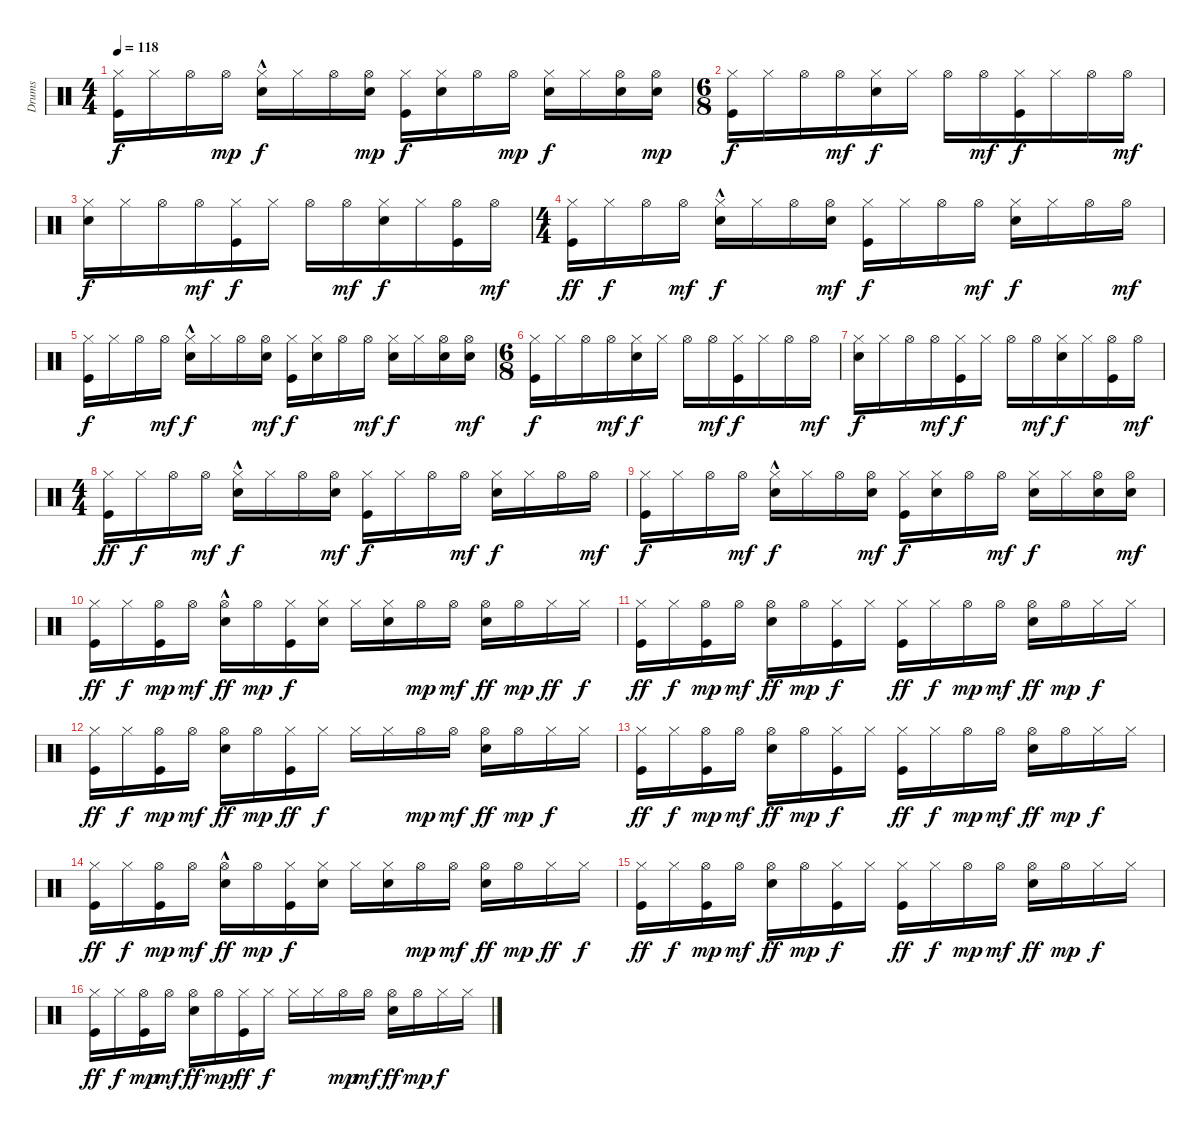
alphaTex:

\track ("Drums" "Drums") {instrument percussion}
\staff {score}
\articulation defaults
\ts (4 4)
\tempo 118
\clef neutral
\ks c
("Hi-Hat (closed)" "Kick (hit)").16{dy f} "Hi-Hat (closed)".16 "Hi-Hat (open)".16 "Hi-Hat (open)".16{dy mp} ("Hi-Hat (closed)" "Electric Snare (hit)"{hac}).16{dy f} "Hi-Hat (closed)".16 "Hi-Hat (open)".16 ("Electric Snare (hit)" "Hi-Hat (open)").16{dy mp} ("Kick (hit)" "Hi-Hat (closed)").16{dy f} ("Electric Snare (hit)" "Hi-Hat (closed)").16 "Hi-Hat (open)".16 "Hi-Hat (open)".16{dy mp} ("Hi-Hat (closed)" "Electric Snare (hit)").16{dy f} "Hi-Hat (closed)".16 ("Electric Snare (hit)" "Hi-Hat (open)").16 ("Electric Snare (hit)" "Hi-Hat (open)").16{dy mp} |
\ts (6 8)
("Hi-Hat (closed)" "Kick (hit)").16{dy f} "Hi-Hat (closed)".16 "Hi-Hat (open)".16 "Hi-Hat (open)".16{dy mf} ("Electric Snare (hit)" "Hi-Hat (closed)").16{dy f} "Hi-Hat (closed)".16 "Hi-Hat (open)".16 "Hi-Hat (open)".16{dy mf} ("Kick (hit)" "Hi-Hat (closed)").16{dy f} "Hi-Hat (closed)".16 "Hi-Hat (open)".16 "Hi-Hat (open)".16{dy mf} |
("Electric Snare (hit)" "Hi-Hat (closed)").16{dy f} "Hi-Hat (closed)".16 "Hi-Hat (open)".16 "Hi-Hat (open)".16{dy mf} ("Kick (hit)" "Hi-Hat (closed)").16{dy f} "Hi-Hat (closed)".16 "Hi-Hat (open)".16 "Hi-Hat (open)".16{dy mf} ("Electric Snare (hit)" "Hi-Hat (closed)").16{dy f} "Hi-Hat (closed)".16 ("Kick (hit)" "Hi-Hat (open)").16 "Hi-Hat (open)".16{dy mf} |
\ts (4 4)
("Kick (hit)" "Hi-Hat (closed)").16{dy ff} "Hi-Hat (closed)".16{dy f} "Hi-Hat (open)".16 "Hi-Hat (open)".16{dy mf} ("Electric Snare (hit)"{hac} "Hi-Hat (closed)").16{dy f} "Hi-Hat (closed)".16 "Hi-Hat (open)".16 ("Hi-Hat (open)" "Electric Snare (hit)").16{dy mf} ("Hi-Hat (closed)" "Kick (hit)").16{dy f} "Hi-Hat (closed)".16 "Hi-Hat (open)".16 "Hi-Hat (open)".16{dy mf} ("Electric Snare (hit)" "Hi-Hat (closed)").16{dy f} "Hi-Hat (closed)".16 "Hi-Hat (open)".16 "Hi-Hat (open)".16{dy mf} |
("Kick (hit)" "Hi-Hat (closed)").16{dy f} "Hi-Hat (closed)".16 "Hi-Hat (open)".16 "Hi-Hat (open)".16{dy mf} ("Electric Snare (hit)"{hac} "Hi-Hat (closed)").16{dy f} "Hi-Hat (closed)".16 "Hi-Hat (open)".16 ("Hi-Hat (open)" "Electric Snare (hit)").16{dy mf} ("Hi-Hat (closed)" "Kick (hit)").16{dy f} ("Electric Snare (hit)" "Hi-Hat (closed)").16 "Hi-Hat (open)".16 "Hi-Hat (open)".16{dy mf} ("Electric Snare (hit)" "Hi-Hat (closed)").16{dy f} "Hi-Hat (closed)".16 ("Electric Snare (hit)" "Hi-Hat (open)").16 ("Electric Snare (hit)" "Hi-Hat (open)").16{dy mf} |
\ts (6 8)
("Hi-Hat (closed)" "Kick (hit)").16{dy f} "Hi-Hat (closed)".16 "Hi-Hat (open)".16 "Hi-Hat (open)".16{dy mf} ("Electric Snare (hit)" "Hi-Hat (closed)").16{dy f} "Hi-Hat (closed)".16 "Hi-Hat (open)".16 "Hi-Hat (open)".16{dy mf} ("Kick (hit)" "Hi-Hat (closed)").16{dy f} "Hi-Hat (closed)".16 "Hi-Hat (open)".16 "Hi-Hat (open)".16{dy mf} |
("Electric Snare (hit)" "Hi-Hat (closed)").16{dy f} "Hi-Hat (closed)".16 "Hi-Hat (open)".16 "Hi-Hat (open)".16{dy mf} ("Kick (hit)" "Hi-Hat (closed)").16{dy f} "Hi-Hat (closed)".16 "Hi-Hat (open)".16 "Hi-Hat (open)".16{dy mf} ("Electric Snare (hit)" "Hi-Hat (closed)").16{dy f} "Hi-Hat (closed)".16 ("Kick (hit)" "Hi-Hat (open)").16 "Hi-Hat (open)".16{dy mf} |
\ts (4 4)
("Kick (hit)" "Hi-Hat (closed)").16{dy ff} "Hi-Hat (closed)".16{dy f} "Hi-Hat (open)".16 "Hi-Hat (open)".16{dy mf} ("Electric Snare (hit)"{hac} "Hi-Hat (closed)").16{dy f} "Hi-Hat (closed)".16 "Hi-Hat (open)".16 ("Hi-Hat (open)" "Electric Snare (hit)").16{dy mf} ("Hi-Hat (closed)" "Kick (hit)").16{dy f} "Hi-Hat (closed)".16 "Hi-Hat (open)".16 "Hi-Hat (open)".16{dy mf} ("Electric Snare (hit)" "Hi-Hat (closed)").16{dy f} "Hi-Hat (closed)".16 "Hi-Hat (open)".16 "Hi-Hat (open)".16{dy mf} |
("Kick (hit)" "Hi-Hat (closed)").16{dy f} "Hi-Hat (closed)".16 "Hi-Hat (open)".16 "Hi-Hat (open)".16{dy mf} ("Electric Snare (hit)"{hac} "Hi-Hat (closed)").16{dy f} "Hi-Hat (closed)".16 "Hi-Hat (open)".16 ("Hi-Hat (open)" "Electric Snare (hit)").16{dy mf} ("Hi-Hat (closed)" "Kick (hit)").16{dy f} ("Electric Snare (hit)" "Hi-Hat (closed)").16 "Hi-Hat (open)".16 "Hi-Hat (open)".16{dy mf} ("Electric Snare (hit)" "Hi-Hat (closed)").16{dy f} "Hi-Hat (closed)".16 ("Electric Snare (hit)" "Hi-Hat (open)").16 ("Electric Snare (hit)" "Hi-Hat (open)").16{dy mf} |
("Kick (hit)" "Hi-Hat (closed)").16{dy ff} "Hi-Hat (closed)".16{dy f} ("Kick (hit)" "Hi-Hat (open)").16{dy mp} "Hi-Hat (open)".16{dy mf} ("Electric Snare (hit)"{hac} "Hi-Hat (open)").16{dy ff} "Hi-Hat (open)".16{dy mp} ("Kick (hit)" "Hi-Hat (closed)").16{dy f} ("Electric Snare (hit)" "Hi-Hat (closed)").16 "Hi-Hat (closed)".16 ("Electric Snare (hit)" "Hi-Hat (closed)").16 "Hi-Hat (open)".16{dy mp} "Hi-Hat (open)".16{dy mf} ("Hi-Hat (open)" "Electric Snare (hit)").16{dy ff} "Hi-Hat (open)".16{dy mp} "Hi-Hat (closed)".16{dy ff} "Hi-Hat (closed)".16{dy f} |
("Kick (hit)" "Hi-Hat (closed)").16{dy ff} "Hi-Hat (closed)".16{dy f} ("Kick (hit)" "Hi-Hat (open)").16{dy mp} "Hi-Hat (open)".16{dy mf} ("Electric Snare (hit)" "Hi-Hat (open)").16{dy ff} "Hi-Hat (open)".16{dy mp} ("Kick (hit)" "Hi-Hat (closed)").16{dy f} "Hi-Hat (closed)".16 ("Kick (hit)" "Hi-Hat (closed)").16{dy ff} "Hi-Hat (closed)".16{dy f} "Hi-Hat (open)".16{dy mp} "Hi-Hat (open)".16{dy mf} ("Electric Snare (hit)" "Hi-Hat (open)").16{dy ff} "Hi-Hat (open)".16{dy mp} "Hi-Hat (closed)".16{dy f} "Hi-Hat (closed)".16 |
("Kick (hit)" "Hi-Hat (closed)").16{dy ff} "Hi-Hat (closed)".16{dy f} ("Kick (hit)" "Hi-Hat (open)").16{dy mp} "Hi-Hat (open)".16{dy mf} ("Electric Snare (hit)" "Hi-Hat (open)").16{dy ff} "Hi-Hat (open)".16{dy mp} ("Kick (hit)" "Hi-Hat (closed)").16{dy ff} "Hi-Hat (closed)".16{dy f} "Hi-Hat (closed)".16 "Hi-Hat (closed)".16 "Hi-Hat (open)".16{dy mp} "Hi-Hat (open)".16{dy mf} ("Electric Snare (hit)" "Hi-Hat (open)").16{dy ff} "Hi-Hat (open)".16{dy mp} "Hi-Hat (closed)".16{dy f} "Hi-Hat (closed)".16 |
("Kick (hit)" "Hi-Hat (closed)").16{dy ff} "Hi-Hat (closed)".16{dy f} ("Kick (hit)" "Hi-Hat (open)").16{dy mp} "Hi-Hat (open)".16{dy mf} ("Electric Snare (hit)" "Hi-Hat (open)").16{dy ff} "Hi-Hat (open)".16{dy mp} ("Kick (hit)" "Hi-Hat (closed)").16{dy f} "Hi-Hat (closed)".16 ("Kick (hit)" "Hi-Hat (closed)").16{dy ff} "Hi-Hat (closed)".16{dy f} "Hi-Hat (open)".16{dy mp} "Hi-Hat (open)".16{dy mf} ("Electric Snare (hit)" "Hi-Hat (open)").16{dy ff} "Hi-Hat (open)".16{dy mp} "Hi-Hat (closed)".16{dy f} "Hi-Hat (closed)".16 |
("Kick (hit)" "Hi-Hat (closed)").16{dy ff} "Hi-Hat (closed)".16{dy f} ("Kick (hit)" "Hi-Hat (open)").16{dy mp} "Hi-Hat (open)".16{dy mf} ("Electric Snare (hit)"{hac} "Hi-Hat (open)").16{dy ff} "Hi-Hat (open)".16{dy mp} ("Kick (hit)" "Hi-Hat (closed)").16{dy f} ("Electric Snare (hit)" "Hi-Hat (closed)").16 "Hi-Hat (closed)".16 ("Electric Snare (hit)" "Hi-Hat (closed)").16 "Hi-Hat (open)".16{dy mp} "Hi-Hat (open)".16{dy mf} ("Hi-Hat (open)" "Electric Snare (hit)").16{dy ff} "Hi-Hat (open)".16{dy mp} "Hi-Hat (closed)".16{dy ff} "Hi-Hat (closed)".16{dy f} |
("Kick (hit)" "Hi-Hat (closed)").16{dy ff} "Hi-Hat (closed)".16{dy f} ("Kick (hit)" "Hi-Hat (open)").16{dy mp} "Hi-Hat (open)".16{dy mf} ("Electric Snare (hit)" "Hi-Hat (open)").16{dy ff} "Hi-Hat (open)".16{dy mp} ("Kick (hit)" "Hi-Hat (closed)").16{dy f} "Hi-Hat (closed)".16 ("Kick (hit)" "Hi-Hat (closed)").16{dy ff} "Hi-Hat (closed)".16{dy f} "Hi-Hat (open)".16{dy mp} "Hi-Hat (open)".16{dy mf} ("Electric Snare (hit)" "Hi-Hat (open)").16{dy ff} "Hi-Hat (open)".16{dy mp} "Hi-Hat (closed)".16{dy f} "Hi-Hat (closed)".16 |
("Kick (hit)" "Hi-Hat (closed)").16{dy ff} "Hi-Hat (closed)".16{dy f} ("Kick (hit)" "Hi-Hat (open)").16{dy mp} "Hi-Hat (open)".16{dy mf} ("Electric Snare (hit)" "Hi-Hat (open)").16{dy ff} "Hi-Hat (open)".16{dy mp} ("Kick (hit)" "Hi-Hat (closed)").16{dy ff} "Hi-Hat (closed)".16{dy f} "Hi-Hat (closed)".16 "Hi-Hat (closed)".16 "Hi-Hat (open)".16{dy mp} "Hi-Hat (open)".16{dy mf} ("Electric Snare (hit)" "Hi-Hat (open)").16{dy ff} "Hi-Hat (open)".16{dy mp} "Hi-Hat (closed)".16{dy f} "Hi-Hat (closed)".16
